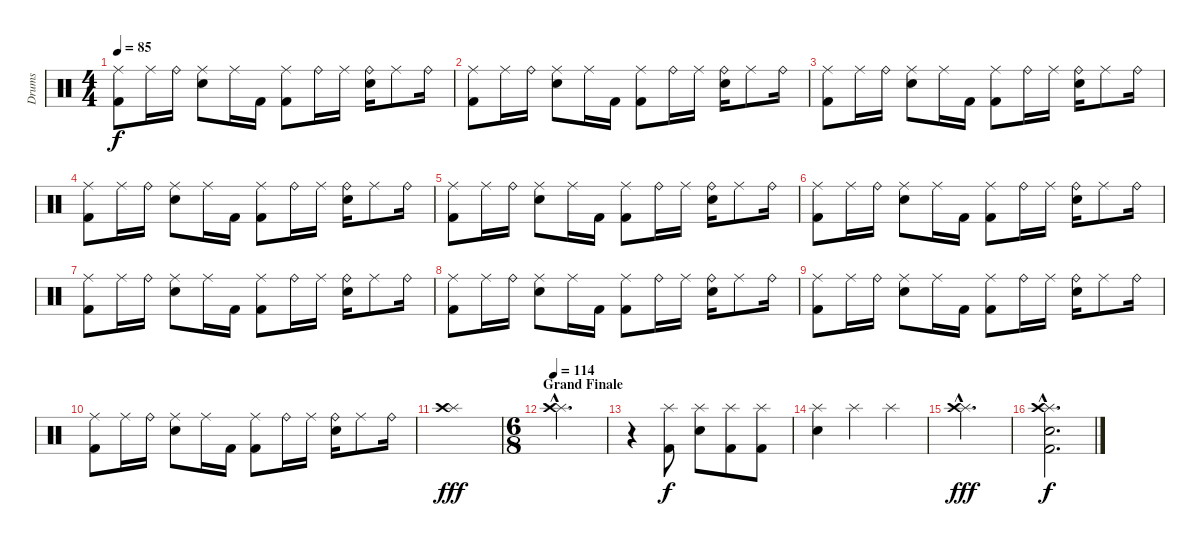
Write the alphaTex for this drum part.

\track ("Drums" "Drums") {instrument percussion}
\staff {score}
\articulation defaults
\ts (4 4)
\tempo 85
\clef neutral
\ks c
("Ride (middle)" "Kick (hit) 2").8{dy f} "Ride (middle)".16 "Ride (bell)".16 ("Ride (middle)" "Snare (hit) 2").8 "Ride (middle)".16 "Kick (hit) 2".16 ("Ride (middle)" "Kick (hit) 2").8 "Ride (bell)".16 "Ride (middle)".16 ("Ride (bell)" "Snare (hit) 2").16 "Ride (middle)".8 "Ride (bell)".16 |
("Ride (middle)" "Kick (hit) 2").8 "Ride (middle)".16 "Ride (bell)".16 ("Ride (middle)" "Snare (hit) 2").8 "Ride (middle)".16 "Kick (hit) 2".16 ("Ride (middle)" "Kick (hit) 2").8 "Ride (bell)".16 "Ride (middle)".16 ("Ride (bell)" "Snare (hit) 2").16 "Ride (middle)".8 "Ride (bell)".16 |
("Ride (middle)" "Kick (hit) 2").8 "Ride (middle)".16 "Ride (bell)".16 ("Ride (middle)" "Snare (hit) 2").8 "Ride (middle)".16 "Kick (hit) 2".16 ("Ride (middle)" "Kick (hit) 2").8 "Ride (bell)".16 "Ride (middle)".16 ("Ride (bell)" "Snare (hit) 2").16 "Ride (middle)".8 "Ride (bell)".16 |
("Ride (middle)" "Kick (hit) 2").8 "Ride (middle)".16 "Ride (bell)".16 ("Ride (middle)" "Snare (hit) 2").8 "Ride (middle)".16 "Kick (hit) 2".16 ("Ride (middle)" "Kick (hit) 2").8 "Ride (bell)".16 "Ride (middle)".16 ("Ride (bell)" "Snare (hit) 2").16 "Ride (middle)".8 "Ride (bell)".16 |
("Ride (middle)" "Kick (hit) 2").8 "Ride (middle)".16 "Ride (bell)".16 ("Ride (middle)" "Snare (hit) 2").8 "Ride (middle)".16 "Kick (hit) 2".16 ("Ride (middle)" "Kick (hit) 2").8 "Ride (bell)".16 "Ride (middle)".16 ("Ride (bell)" "Snare (hit) 2").16 "Ride (middle)".8 "Ride (bell)".16 |
("Ride (middle)" "Kick (hit) 2").8 "Ride (middle)".16 "Ride (bell)".16 ("Ride (middle)" "Snare (hit) 2").8 "Ride (middle)".16 "Kick (hit) 2".16 ("Ride (middle)" "Kick (hit) 2").8 "Ride (bell)".16 "Ride (middle)".16 ("Ride (bell)" "Snare (hit) 2").16 "Ride (middle)".8 "Ride (bell)".16 |
("Ride (middle)" "Kick (hit) 2").8 "Ride (middle)".16 "Ride (bell)".16 ("Ride (middle)" "Snare (hit) 2").8 "Ride (middle)".16 "Kick (hit) 2".16 ("Ride (middle)" "Kick (hit) 2").8 "Ride (bell)".16 "Ride (middle)".16 ("Ride (bell)" "Snare (hit) 2").16 "Ride (middle)".8 "Ride (bell)".16 |
("Ride (middle)" "Kick (hit) 2").8 "Ride (middle)".16 "Ride (bell)".16 ("Ride (middle)" "Snare (hit) 2").8 "Ride (middle)".16 "Kick (hit) 2".16 ("Ride (middle)" "Kick (hit) 2").8 "Ride (bell)".16 "Ride (middle)".16 ("Ride (bell)" "Snare (hit) 2").16 "Ride (middle)".8 "Ride (bell)".16 |
("Ride (middle)" "Kick (hit) 2").8 "Ride (middle)".16 "Ride (bell)".16 ("Ride (middle)" "Snare (hit) 2").8 "Ride (middle)".16 "Kick (hit) 2".16 ("Ride (middle)" "Kick (hit) 2").8 "Ride (bell)".16 "Ride (middle)".16 ("Ride (bell)" "Snare (hit) 2").16 "Ride (middle)".8 "Ride (bell)".16 |
("Ride (middle)" "Kick (hit) 2").8 "Ride (middle)".16 "Ride (bell)".16 ("Ride (middle)" "Snare (hit) 2").8 "Ride (middle)".16 "Kick (hit) 2".16 ("Ride (middle)" "Kick (hit) 2").8 "Ride (bell)".16 "Ride (middle)".16 ("Ride (bell)" "Snare (hit) 2").16 "Ride (middle)".8 "Ride (bell)".16 |
("Splash (hit)" "Crash high (hit)").1{dy fff} |
\ts (6 8)
\section ("" "Grand Finale")
\tempo 114
("Splash (hit)"{hac} "Crash high (hit)"{hac}).2{d} |
r.4 ("Splash (hit)" "Kick (hit) 2").8{dy f} ("Splash (hit)" "Snare (hit) 2").8 ("Splash (hit)" "Kick (hit) 2").8 ("Splash (hit)" "Kick (hit) 2").8 |
("Splash (hit)" "Snare (hit) 2").4 "Splash (hit)".4 "Splash (hit)".4 |
("Splash (hit)"{hac} "Crash high (hit)"{hac}).2{d dy fff} |
("Splash (hit)"{hac} "Crash high (hit)"{hac} "Snare (hit) 2"{hac} "Kick (hit) 2"{hac}).2{d dy f}
